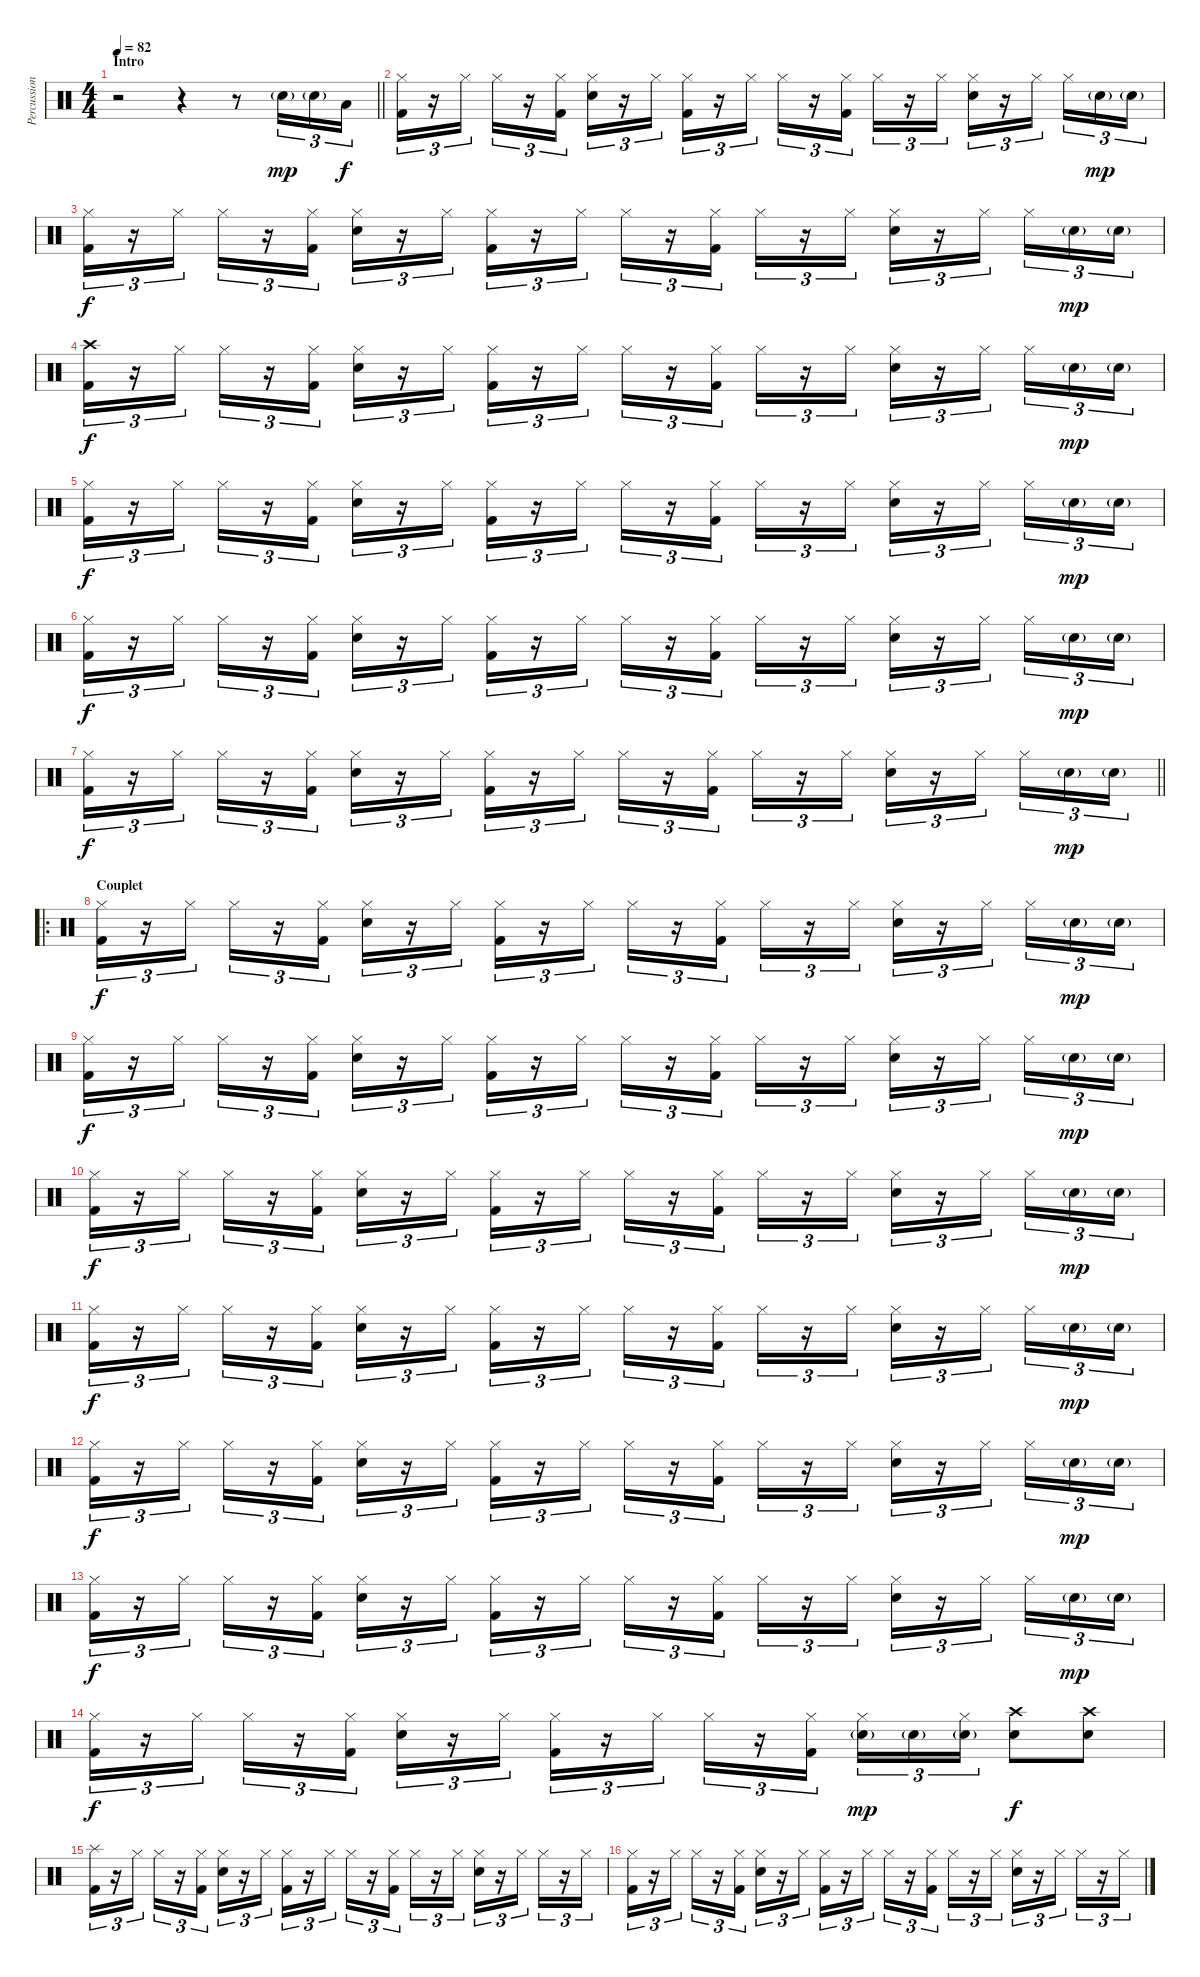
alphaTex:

\track ("Percussioni" "Percussion") {instrument percussion}
\staff {score}
\articulation defaults
\ts (4 4)
\section ("" "Intro")
\tempo 82
\clef neutral
\barLineRight lightlight
\ks c
r.2{dy mp} r.4 r.8 "Snare (hit) 2"{g}.16{tu (3 2)} "Snare (hit) 2"{g}.16{tu (3 2)} "Low Tom (hit)".16{tu (3 2) dy f} |
("Hi-Hat (closed)" "Kick (hit) 2").16{tu (3 2)} r.16{tu (3 2)} "Hi-Hat (closed)".16{tu (3 2)} "Hi-Hat (closed)".16{tu (3 2)} r.16{tu (3 2)} ("Hi-Hat (closed)" "Kick (hit) 2").16{tu (3 2)} ("Hi-Hat (closed)" "Snare (hit) 2").16{tu (3 2)} r.16{tu (3 2)} "Hi-Hat (closed)".16{tu (3 2)} ("Hi-Hat (closed)" "Kick (hit) 2").16{tu (3 2)} r.16{tu (3 2)} "Hi-Hat (closed)".16{tu (3 2)} "Hi-Hat (closed)".16{tu (3 2)} r.16{tu (3 2)} ("Hi-Hat (closed)" "Kick (hit) 2").16{tu (3 2)} "Hi-Hat (closed)".16{tu (3 2)} r.16{tu (3 2)} "Hi-Hat (closed)".16{tu (3 2)} ("Hi-Hat (closed)" "Snare (hit) 2").16{tu (3 2)} r.16{tu (3 2)} "Hi-Hat (closed)".16{tu (3 2)} "Hi-Hat (closed)".16{tu (3 2)} "Snare (hit) 2"{g}.16{tu (3 2) dy mp} "Snare (hit) 2"{g}.16{tu (3 2)} |
("Hi-Hat (closed)" "Kick (hit) 2").16{tu (3 2) dy f} r.16{tu (3 2)} "Hi-Hat (closed)".16{tu (3 2)} "Hi-Hat (closed)".16{tu (3 2)} r.16{tu (3 2)} ("Hi-Hat (closed)" "Kick (hit) 2").16{tu (3 2)} ("Hi-Hat (closed)" "Snare (hit) 2").16{tu (3 2)} r.16{tu (3 2)} "Hi-Hat (closed)".16{tu (3 2)} ("Hi-Hat (closed)" "Kick (hit) 2").16{tu (3 2)} r.16{tu (3 2)} "Hi-Hat (closed)".16{tu (3 2)} "Hi-Hat (closed)".16{tu (3 2)} r.16{tu (3 2)} ("Hi-Hat (closed)" "Kick (hit) 2").16{tu (3 2)} "Hi-Hat (closed)".16{tu (3 2)} r.16{tu (3 2)} "Hi-Hat (closed)".16{tu (3 2)} ("Hi-Hat (closed)" "Snare (hit) 2").16{tu (3 2)} r.16{tu (3 2)} "Hi-Hat (closed)".16{tu (3 2)} "Hi-Hat (closed)".16{tu (3 2)} "Snare (hit) 2"{g}.16{tu (3 2) dy mp} "Snare (hit) 2"{g}.16{tu (3 2)} |
("Crash high (hit)" "Kick (hit) 2").16{tu (3 2) dy f} r.16{tu (3 2)} "Hi-Hat (closed)".16{tu (3 2)} "Hi-Hat (closed)".16{tu (3 2)} r.16{tu (3 2)} ("Hi-Hat (closed)" "Kick (hit) 2").16{tu (3 2)} ("Hi-Hat (closed)" "Snare (hit) 2").16{tu (3 2)} r.16{tu (3 2)} "Hi-Hat (closed)".16{tu (3 2)} ("Hi-Hat (closed)" "Kick (hit) 2").16{tu (3 2)} r.16{tu (3 2)} "Hi-Hat (closed)".16{tu (3 2)} "Hi-Hat (closed)".16{tu (3 2)} r.16{tu (3 2)} ("Hi-Hat (closed)" "Kick (hit) 2").16{tu (3 2)} "Hi-Hat (closed)".16{tu (3 2)} r.16{tu (3 2)} "Hi-Hat (closed)".16{tu (3 2)} ("Hi-Hat (closed)" "Snare (hit) 2").16{tu (3 2)} r.16{tu (3 2)} "Hi-Hat (closed)".16{tu (3 2)} "Hi-Hat (closed)".16{tu (3 2)} "Snare (hit) 2"{g}.16{tu (3 2) dy mp} "Snare (hit) 2"{g}.16{tu (3 2)} |
("Hi-Hat (closed)" "Kick (hit) 2").16{tu (3 2) dy f} r.16{tu (3 2)} "Hi-Hat (closed)".16{tu (3 2)} "Hi-Hat (closed)".16{tu (3 2)} r.16{tu (3 2)} ("Hi-Hat (closed)" "Kick (hit) 2").16{tu (3 2)} ("Hi-Hat (closed)" "Snare (hit) 2").16{tu (3 2)} r.16{tu (3 2)} "Hi-Hat (closed)".16{tu (3 2)} ("Hi-Hat (closed)" "Kick (hit) 2").16{tu (3 2)} r.16{tu (3 2)} "Hi-Hat (closed)".16{tu (3 2)} "Hi-Hat (closed)".16{tu (3 2)} r.16{tu (3 2)} ("Hi-Hat (closed)" "Kick (hit) 2").16{tu (3 2)} "Hi-Hat (closed)".16{tu (3 2)} r.16{tu (3 2)} "Hi-Hat (closed)".16{tu (3 2)} ("Hi-Hat (closed)" "Snare (hit) 2").16{tu (3 2)} r.16{tu (3 2)} "Hi-Hat (closed)".16{tu (3 2)} "Hi-Hat (closed)".16{tu (3 2)} "Snare (hit) 2"{g}.16{tu (3 2) dy mp} "Snare (hit) 2"{g}.16{tu (3 2)} |
("Hi-Hat (closed)" "Kick (hit) 2").16{tu (3 2) dy f} r.16{tu (3 2)} "Hi-Hat (closed)".16{tu (3 2)} "Hi-Hat (closed)".16{tu (3 2)} r.16{tu (3 2)} ("Hi-Hat (closed)" "Kick (hit) 2").16{tu (3 2)} ("Hi-Hat (closed)" "Snare (hit) 2").16{tu (3 2)} r.16{tu (3 2)} "Hi-Hat (closed)".16{tu (3 2)} ("Hi-Hat (closed)" "Kick (hit) 2").16{tu (3 2)} r.16{tu (3 2)} "Hi-Hat (closed)".16{tu (3 2)} "Hi-Hat (closed)".16{tu (3 2)} r.16{tu (3 2)} ("Hi-Hat (closed)" "Kick (hit) 2").16{tu (3 2)} "Hi-Hat (closed)".16{tu (3 2)} r.16{tu (3 2)} "Hi-Hat (closed)".16{tu (3 2)} ("Hi-Hat (closed)" "Snare (hit) 2").16{tu (3 2)} r.16{tu (3 2)} "Hi-Hat (closed)".16{tu (3 2)} "Hi-Hat (closed)".16{tu (3 2)} "Snare (hit) 2"{g}.16{tu (3 2) dy mp} "Snare (hit) 2"{g}.16{tu (3 2)} |
\barLineRight lightlight
("Hi-Hat (closed)" "Kick (hit) 2").16{tu (3 2) dy f} r.16{tu (3 2)} "Hi-Hat (closed)".16{tu (3 2)} "Hi-Hat (closed)".16{tu (3 2)} r.16{tu (3 2)} ("Hi-Hat (closed)" "Kick (hit) 2").16{tu (3 2)} ("Hi-Hat (closed)" "Snare (hit) 2").16{tu (3 2)} r.16{tu (3 2)} "Hi-Hat (closed)".16{tu (3 2)} ("Hi-Hat (closed)" "Kick (hit) 2").16{tu (3 2)} r.16{tu (3 2)} "Hi-Hat (closed)".16{tu (3 2)} "Hi-Hat (closed)".16{tu (3 2)} r.16{tu (3 2)} ("Hi-Hat (closed)" "Kick (hit) 2").16{tu (3 2)} "Hi-Hat (closed)".16{tu (3 2)} r.16{tu (3 2)} "Hi-Hat (closed)".16{tu (3 2)} ("Hi-Hat (closed)" "Snare (hit) 2").16{tu (3 2)} r.16{tu (3 2)} "Hi-Hat (closed)".16{tu (3 2)} "Hi-Hat (closed)".16{tu (3 2)} "Snare (hit) 2"{g}.16{tu (3 2) dy mp} "Snare (hit) 2"{g}.16{tu (3 2)} |
\ro
\section ("" "Couplet")
("Hi-Hat (closed)" "Kick (hit) 2").16{tu (3 2) dy f} r.16{tu (3 2)} "Hi-Hat (closed)".16{tu (3 2)} "Hi-Hat (closed)".16{tu (3 2)} r.16{tu (3 2)} ("Hi-Hat (closed)" "Kick (hit) 2").16{tu (3 2)} ("Hi-Hat (closed)" "Snare (hit) 2").16{tu (3 2)} r.16{tu (3 2)} "Hi-Hat (closed)".16{tu (3 2)} ("Hi-Hat (closed)" "Kick (hit) 2").16{tu (3 2)} r.16{tu (3 2)} "Hi-Hat (closed)".16{tu (3 2)} "Hi-Hat (closed)".16{tu (3 2)} r.16{tu (3 2)} ("Hi-Hat (closed)" "Kick (hit) 2").16{tu (3 2)} "Hi-Hat (closed)".16{tu (3 2)} r.16{tu (3 2)} "Hi-Hat (closed)".16{tu (3 2)} ("Hi-Hat (closed)" "Snare (hit) 2").16{tu (3 2)} r.16{tu (3 2)} "Hi-Hat (closed)".16{tu (3 2)} "Hi-Hat (closed)".16{tu (3 2)} "Snare (hit) 2"{g}.16{tu (3 2) dy mp} "Snare (hit) 2"{g}.16{tu (3 2)} |
("Hi-Hat (closed)" "Kick (hit) 2").16{tu (3 2) dy f} r.16{tu (3 2)} "Hi-Hat (closed)".16{tu (3 2)} "Hi-Hat (closed)".16{tu (3 2)} r.16{tu (3 2)} ("Hi-Hat (closed)" "Kick (hit) 2").16{tu (3 2)} ("Hi-Hat (closed)" "Snare (hit) 2").16{tu (3 2)} r.16{tu (3 2)} "Hi-Hat (closed)".16{tu (3 2)} ("Hi-Hat (closed)" "Kick (hit) 2").16{tu (3 2)} r.16{tu (3 2)} "Hi-Hat (closed)".16{tu (3 2)} "Hi-Hat (closed)".16{tu (3 2)} r.16{tu (3 2)} ("Hi-Hat (closed)" "Kick (hit) 2").16{tu (3 2)} "Hi-Hat (closed)".16{tu (3 2)} r.16{tu (3 2)} "Hi-Hat (closed)".16{tu (3 2)} ("Hi-Hat (closed)" "Snare (hit) 2").16{tu (3 2)} r.16{tu (3 2)} "Hi-Hat (closed)".16{tu (3 2)} "Hi-Hat (closed)".16{tu (3 2)} "Snare (hit) 2"{g}.16{tu (3 2) dy mp} "Snare (hit) 2"{g}.16{tu (3 2)} |
("Hi-Hat (closed)" "Kick (hit) 2").16{tu (3 2) dy f} r.16{tu (3 2)} "Hi-Hat (closed)".16{tu (3 2)} "Hi-Hat (closed)".16{tu (3 2)} r.16{tu (3 2)} ("Hi-Hat (closed)" "Kick (hit) 2").16{tu (3 2)} ("Hi-Hat (closed)" "Snare (hit) 2").16{tu (3 2)} r.16{tu (3 2)} "Hi-Hat (closed)".16{tu (3 2)} ("Hi-Hat (closed)" "Kick (hit) 2").16{tu (3 2)} r.16{tu (3 2)} "Hi-Hat (closed)".16{tu (3 2)} "Hi-Hat (closed)".16{tu (3 2)} r.16{tu (3 2)} ("Hi-Hat (closed)" "Kick (hit) 2").16{tu (3 2)} "Hi-Hat (closed)".16{tu (3 2)} r.16{tu (3 2)} "Hi-Hat (closed)".16{tu (3 2)} ("Hi-Hat (closed)" "Snare (hit) 2").16{tu (3 2)} r.16{tu (3 2)} "Hi-Hat (closed)".16{tu (3 2)} "Hi-Hat (closed)".16{tu (3 2)} "Snare (hit) 2"{g}.16{tu (3 2) dy mp} "Snare (hit) 2"{g}.16{tu (3 2)} |
("Hi-Hat (closed)" "Kick (hit) 2").16{tu (3 2) dy f} r.16{tu (3 2)} "Hi-Hat (closed)".16{tu (3 2)} "Hi-Hat (closed)".16{tu (3 2)} r.16{tu (3 2)} ("Hi-Hat (closed)" "Kick (hit) 2").16{tu (3 2)} ("Hi-Hat (closed)" "Snare (hit) 2").16{tu (3 2)} r.16{tu (3 2)} "Hi-Hat (closed)".16{tu (3 2)} ("Hi-Hat (closed)" "Kick (hit) 2").16{tu (3 2)} r.16{tu (3 2)} "Hi-Hat (closed)".16{tu (3 2)} "Hi-Hat (closed)".16{tu (3 2)} r.16{tu (3 2)} ("Hi-Hat (closed)" "Kick (hit) 2").16{tu (3 2)} "Hi-Hat (closed)".16{tu (3 2)} r.16{tu (3 2)} "Hi-Hat (closed)".16{tu (3 2)} ("Hi-Hat (closed)" "Snare (hit) 2").16{tu (3 2)} r.16{tu (3 2)} "Hi-Hat (closed)".16{tu (3 2)} "Hi-Hat (closed)".16{tu (3 2)} "Snare (hit) 2"{g}.16{tu (3 2) dy mp} "Snare (hit) 2"{g}.16{tu (3 2)} |
("Hi-Hat (closed)" "Kick (hit) 2").16{tu (3 2) dy f} r.16{tu (3 2)} "Hi-Hat (closed)".16{tu (3 2)} "Hi-Hat (closed)".16{tu (3 2)} r.16{tu (3 2)} ("Hi-Hat (closed)" "Kick (hit) 2").16{tu (3 2)} ("Hi-Hat (closed)" "Snare (hit) 2").16{tu (3 2)} r.16{tu (3 2)} "Hi-Hat (closed)".16{tu (3 2)} ("Hi-Hat (closed)" "Kick (hit) 2").16{tu (3 2)} r.16{tu (3 2)} "Hi-Hat (closed)".16{tu (3 2)} "Hi-Hat (closed)".16{tu (3 2)} r.16{tu (3 2)} ("Hi-Hat (closed)" "Kick (hit) 2").16{tu (3 2)} "Hi-Hat (closed)".16{tu (3 2)} r.16{tu (3 2)} "Hi-Hat (closed)".16{tu (3 2)} ("Hi-Hat (closed)" "Snare (hit) 2").16{tu (3 2)} r.16{tu (3 2)} "Hi-Hat (closed)".16{tu (3 2)} "Hi-Hat (closed)".16{tu (3 2)} "Snare (hit) 2"{g}.16{tu (3 2) dy mp} "Snare (hit) 2"{g}.16{tu (3 2)} |
("Hi-Hat (closed)" "Kick (hit) 2").16{tu (3 2) dy f} r.16{tu (3 2)} "Hi-Hat (closed)".16{tu (3 2)} "Hi-Hat (closed)".16{tu (3 2)} r.16{tu (3 2)} ("Hi-Hat (closed)" "Kick (hit) 2").16{tu (3 2)} ("Hi-Hat (closed)" "Snare (hit) 2").16{tu (3 2)} r.16{tu (3 2)} "Hi-Hat (closed)".16{tu (3 2)} ("Hi-Hat (closed)" "Kick (hit) 2").16{tu (3 2)} r.16{tu (3 2)} "Hi-Hat (closed)".16{tu (3 2)} "Hi-Hat (closed)".16{tu (3 2)} r.16{tu (3 2)} ("Hi-Hat (closed)" "Kick (hit) 2").16{tu (3 2)} "Hi-Hat (closed)".16{tu (3 2)} r.16{tu (3 2)} "Hi-Hat (closed)".16{tu (3 2)} ("Hi-Hat (closed)" "Snare (hit) 2").16{tu (3 2)} r.16{tu (3 2)} "Hi-Hat (closed)".16{tu (3 2)} "Hi-Hat (closed)".16{tu (3 2)} "Snare (hit) 2"{g}.16{tu (3 2) dy mp} "Snare (hit) 2"{g}.16{tu (3 2)} |
("Hi-Hat (closed)" "Kick (hit) 2").16{tu (3 2) dy f} r.16{tu (3 2)} "Hi-Hat (closed)".16{tu (3 2)} "Hi-Hat (closed)".16{tu (3 2)} r.16{tu (3 2)} ("Hi-Hat (closed)" "Kick (hit) 2").16{tu (3 2)} ("Hi-Hat (closed)" "Snare (hit) 2").16{tu (3 2)} r.16{tu (3 2)} "Hi-Hat (closed)".16{tu (3 2)} ("Hi-Hat (closed)" "Kick (hit) 2").16{tu (3 2)} r.16{tu (3 2)} "Hi-Hat (closed)".16{tu (3 2)} "Hi-Hat (closed)".16{tu (3 2)} r.16{tu (3 2)} ("Hi-Hat (closed)" "Kick (hit) 2").16{tu (3 2)} ("Hi-Hat (closed)" "Snare (hit) 2"{g}).16{tu (3 2) dy mp} "Snare (hit) 2"{g}.16{tu (3 2)} ("Hi-Hat (closed)" "Snare (hit) 2"{g}).16{tu (3 2)} ("Crash high (hit)" "Snare (hit) 2").8{dy f} ("Crash high (hit)" "Snare (hit) 2").8 |
("Splash (hit)" "Kick (hit) 2").16{tu (3 2)} r.16{tu (3 2)} "Hi-Hat (closed)".16{tu (3 2)} "Hi-Hat (closed)".16{tu (3 2)} r.16{tu (3 2)} ("Hi-Hat (closed)" "Kick (hit) 2").16{tu (3 2)} ("Hi-Hat (closed)" "Snare (hit) 2").16{tu (3 2)} r.16{tu (3 2)} "Hi-Hat (closed)".16{tu (3 2)} ("Hi-Hat (closed)" "Kick (hit) 2").16{tu (3 2)} r.16{tu (3 2)} "Hi-Hat (closed)".16{tu (3 2)} "Hi-Hat (closed)".16{tu (3 2)} r.16{tu (3 2)} ("Hi-Hat (closed)" "Kick (hit) 2").16{tu (3 2)} "Hi-Hat (closed)".16{tu (3 2)} r.16{tu (3 2)} "Hi-Hat (closed)".16{tu (3 2)} ("Hi-Hat (closed)" "Snare (hit) 2").16{tu (3 2)} r.16{tu (3 2)} "Hi-Hat (closed)".16{tu (3 2)} "Hi-Hat (closed)".16{tu (3 2)} r.16{tu (3 2)} "Hi-Hat (closed)".16{tu (3 2)} |
("Hi-Hat (closed)" "Kick (hit) 2").16{tu (3 2)} r.16{tu (3 2)} "Hi-Hat (closed)".16{tu (3 2)} "Hi-Hat (closed)".16{tu (3 2)} r.16{tu (3 2)} ("Hi-Hat (closed)" "Kick (hit) 2").16{tu (3 2)} ("Hi-Hat (closed)" "Snare (hit) 2").16{tu (3 2)} r.16{tu (3 2)} "Hi-Hat (closed)".16{tu (3 2)} ("Hi-Hat (closed)" "Kick (hit) 2").16{tu (3 2)} r.16{tu (3 2)} "Hi-Hat (closed)".16{tu (3 2)} "Hi-Hat (closed)".16{tu (3 2)} r.16{tu (3 2)} ("Hi-Hat (closed)" "Kick (hit) 2").16{tu (3 2)} "Hi-Hat (closed)".16{tu (3 2)} r.16{tu (3 2)} "Hi-Hat (closed)".16{tu (3 2)} ("Hi-Hat (closed)" "Snare (hit) 2").16{tu (3 2)} r.16{tu (3 2)} "Hi-Hat (closed)".16{tu (3 2)} "Hi-Hat (closed)".16{tu (3 2)} r.16{tu (3 2)} "Hi-Hat (closed)".16{tu (3 2)}
